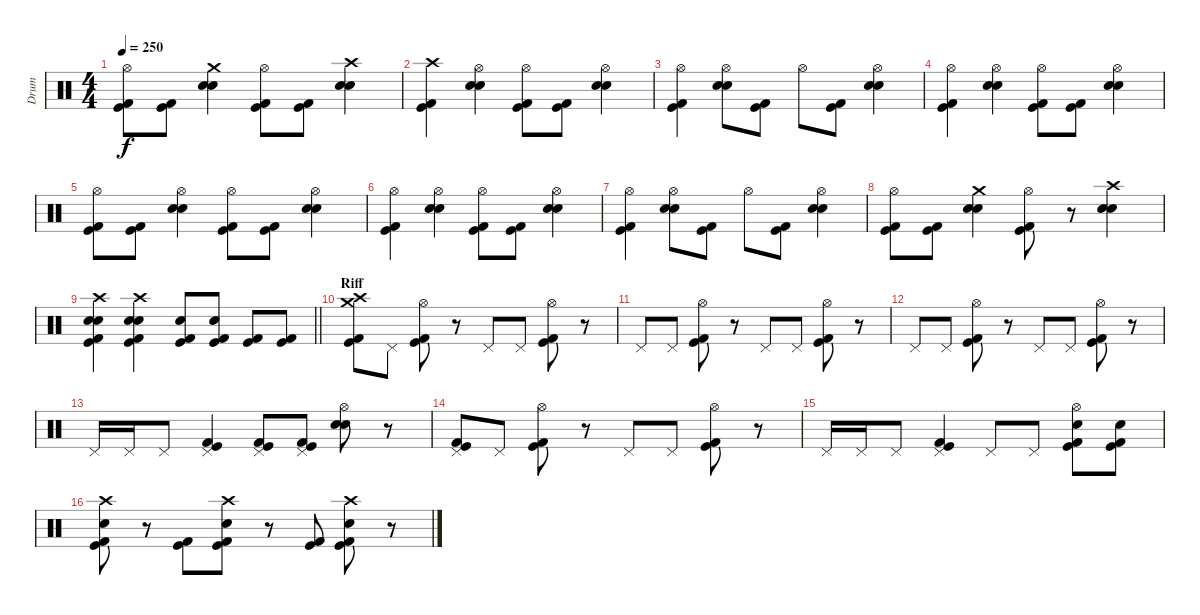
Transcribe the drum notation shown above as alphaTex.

\track ("Drum" "Drum") {instrument percussion}
\staff {score}
\articulation defaults
\ts (4 4)
\tempo 250
\clef neutral
\ks c
("Hi-Hat (open)" "Kick (hit) 2" "Kick (hit)").8{dy f} ("Kick (hit) 2" "Kick (hit)").8 ("Crash medium (hit)" "Electric Snare (hit)" "Snare (hit) 2").4 ("Hi-Hat (open)" "Kick (hit) 2" "Kick (hit)").8 ("Kick (hit) 2" "Kick (hit)").8 ("Crash high (hit)" "Electric Snare (hit)" "Snare (hit) 2").4 |
("Crash high (hit)" "Kick (hit) 2" "Kick (hit)").4 ("Hi-Hat (open)" "Electric Snare (hit)" "Snare (hit) 2").4 ("Hi-Hat (open)" "Kick (hit) 2" "Kick (hit)").8 ("Kick (hit) 2" "Kick (hit)").8 ("Hi-Hat (open)" "Electric Snare (hit)" "Snare (hit) 2").4 |
("Hi-Hat (open)" "Kick (hit) 2" "Kick (hit)").4 ("Hi-Hat (open)" "Electric Snare (hit)" "Snare (hit) 2").8 ("Kick (hit) 2" "Kick (hit)").8 "Hi-Hat (open)".8 ("Kick (hit) 2" "Kick (hit)").8 ("Hi-Hat (open)" "Electric Snare (hit)" "Snare (hit) 2").4 |
("Hi-Hat (open)" "Kick (hit) 2" "Kick (hit)").4 ("Hi-Hat (open)" "Electric Snare (hit)" "Snare (hit) 2").4 ("Hi-Hat (open)" "Kick (hit) 2" "Kick (hit)").8 ("Kick (hit) 2" "Kick (hit)").8 ("Hi-Hat (open)" "Electric Snare (hit)" "Snare (hit) 2").4 |
("Hi-Hat (open)" "Kick (hit) 2" "Kick (hit)").8 ("Kick (hit) 2" "Kick (hit)").8 ("Hi-Hat (open)" "Electric Snare (hit)" "Snare (hit) 2").4 ("Hi-Hat (open)" "Kick (hit) 2" "Kick (hit)").8 ("Kick (hit) 2" "Kick (hit)").8 ("Hi-Hat (open)" "Electric Snare (hit)" "Snare (hit) 2").4 |
("Hi-Hat (open)" "Kick (hit) 2" "Kick (hit)").4 ("Hi-Hat (open)" "Electric Snare (hit)" "Snare (hit) 2").4 ("Hi-Hat (open)" "Kick (hit) 2" "Kick (hit)").8 ("Kick (hit) 2" "Kick (hit)").8 ("Hi-Hat (open)" "Electric Snare (hit)" "Snare (hit) 2").4 |
("Hi-Hat (open)" "Kick (hit) 2" "Kick (hit)").4 ("Hi-Hat (open)" "Electric Snare (hit)" "Snare (hit) 2").8 ("Kick (hit) 2" "Kick (hit)").8 "Hi-Hat (open)".8 ("Kick (hit) 2" "Kick (hit)").8 ("Hi-Hat (open)" "Electric Snare (hit)" "Snare (hit) 2").4 |
("Hi-Hat (open)" "Kick (hit) 2" "Kick (hit)").8 ("Kick (hit) 2" "Kick (hit)").8 ("Crash medium (hit)" "Electric Snare (hit)" "Snare (hit) 2").4 ("Hi-Hat (open)" "Kick (hit) 2" "Kick (hit)").8 r.8 ("Crash high (hit)" "Electric Snare (hit)" "Snare (hit) 2").4 |
\barLineRight lightlight
("Crash high (hit)" "Electric Snare (hit)" "Snare (hit) 2" "Kick (hit) 2" "Kick (hit)").4 ("Crash high (hit)" "Electric Snare (hit)" "Snare (hit) 2" "Kick (hit) 2" "Kick (hit)").4 ("Electric Snare (hit)" "Kick (hit) 2" "Kick (hit)").8 ("Electric Snare (hit)" "Kick (hit) 2" "Kick (hit)").8 ("Kick (hit) 2" "Kick (hit)").8 ("Kick (hit) 2" "Kick (hit)").8 |
\section ("" "Riff")
("Crash high (hit)" "Crash medium (hit)" "Kick (hit) 2" "Kick (hit)").8 "Pedal Hi-Hat (hit)".8 ("Hi-Hat (open)" "Kick (hit) 2" "Kick (hit)").8 r.8 "Pedal Hi-Hat (hit)".8 "Pedal Hi-Hat (hit)".8 ("Hi-Hat (open)" "Kick (hit) 2" "Kick (hit)").8 r.8 |
"Pedal Hi-Hat (hit)".8 "Pedal Hi-Hat (hit)".8 ("Hi-Hat (open)" "Kick (hit) 2" "Kick (hit)").8 r.8 "Pedal Hi-Hat (hit)".8 "Pedal Hi-Hat (hit)".8 ("Hi-Hat (open)" "Kick (hit) 2" "Kick (hit)").8 r.8 |
"Pedal Hi-Hat (hit)".8 "Pedal Hi-Hat (hit)".8 ("Hi-Hat (open)" "Kick (hit) 2" "Kick (hit)").8 r.8 "Pedal Hi-Hat (hit)".8 "Pedal Hi-Hat (hit)".8 ("Hi-Hat (open)" "Kick (hit) 2" "Kick (hit)").8 r.8 |
"Pedal Hi-Hat (hit)".16 "Pedal Hi-Hat (hit)".16 "Pedal Hi-Hat (hit)".8 ("Pedal Hi-Hat (hit)" "Kick (hit) 2" "Kick (hit)").4 ("Pedal Hi-Hat (hit)" "Kick (hit) 2" "Kick (hit)").8 ("Pedal Hi-Hat (hit)" "Kick (hit) 2" "Kick (hit)").8 ("Hi-Hat (open)" "Electric Snare (hit)" "Snare (hit) 2").8 r.8 |
("Pedal Hi-Hat (hit)" "Kick (hit) 2" "Kick (hit)").8 "Pedal Hi-Hat (hit)".8 ("Hi-Hat (open)" "Kick (hit) 2" "Kick (hit)").8 r.8 "Pedal Hi-Hat (hit)".8 "Pedal Hi-Hat (hit)".8 ("Hi-Hat (open)" "Kick (hit) 2" "Kick (hit)").8 r.8 |
"Pedal Hi-Hat (hit)".16 "Pedal Hi-Hat (hit)".16 "Pedal Hi-Hat (hit)".8 ("Pedal Hi-Hat (hit)" "Kick (hit) 2" "Kick (hit)").4 "Pedal Hi-Hat (hit)".8 "Pedal Hi-Hat (hit)".8 ("Hi-Hat (open)" "Electric Snare (hit)" "Kick (hit) 2" "Kick (hit)").8 ("Electric Snare (hit)" "Kick (hit) 2" "Kick (hit)").8 |
("Crash high (hit)" "Electric Snare (hit)" "Kick (hit) 2" "Kick (hit)").8 r.8 ("Kick (hit) 2" "Kick (hit)").8 ("Crash high (hit)" "Electric Snare (hit)" "Kick (hit) 2" "Kick (hit)").8 r.8 ("Kick (hit) 2" "Kick (hit)").8 ("Crash high (hit)" "Electric Snare (hit)" "Kick (hit) 2" "Kick (hit)").8 r.8
